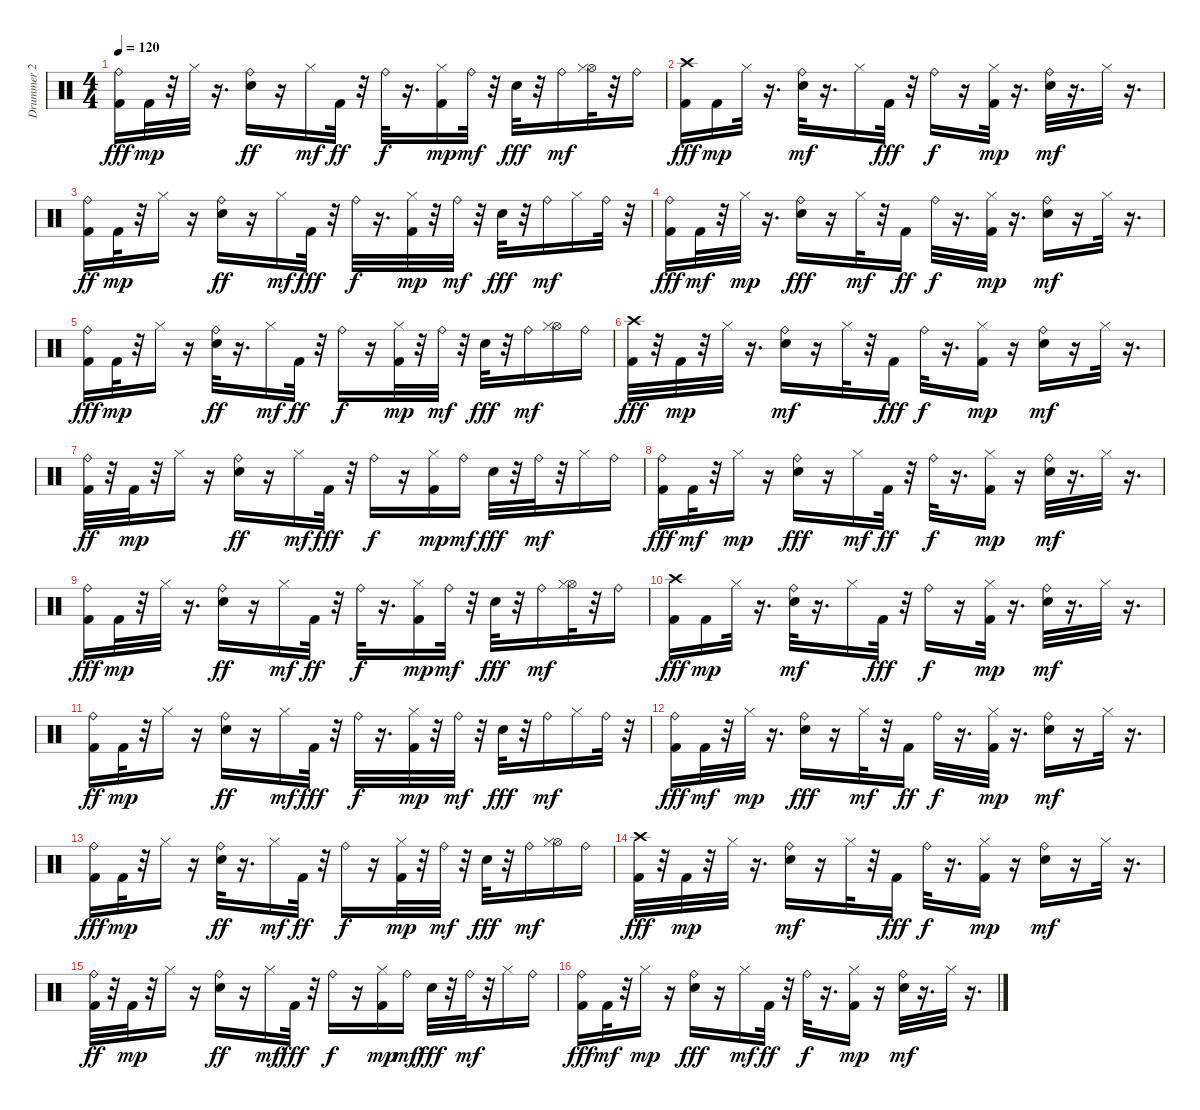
\track ("Drummer 2" "Drummer 2") {instrument percussion}
\staff {score}
\articulation defaults
\ts (4 4)
\tempo 120
\clef neutral
\ks c
("Kick (hit) 2" "Ride (bell)").16{dy fff} "Kick (hit) 2".32{dy mp} r.32 "Hi-Hat (closed)".32 r.16{d} ("Ride (bell)" "Snare (hit) 2").16{dy ff} r.16 "Hi-Hat (closed)".16{dy mf} "Kick (hit) 2".32{dy ff} r.32 "Ride (bell)".32{dy f} r.16{d} ("Kick (hit) 2" "Hi-Hat (closed)").16{dy mp} "Ride (bell)".32{dy mf} r.32 "Snare (hit) 2".32{dy fff} r.32 "Ride (bell)".16{dy mf} ("Hi-Hat (open)" "Hi-Hat (closed)").32 r.32 "Ride (bell)".16 |
("Kick (hit) 2" "Crash high (hit)").16{dy fff} "Kick (hit) 2".16{dy mp} "Hi-Hat (closed)".32 r.16{d} ("Snare (hit) 2" "Ride (bell)").32{dy mf} r.16{d} "Hi-Hat (closed)".16 "Kick (hit) 2".32{dy fff} r.32 "Ride (bell)".16{dy f} r.16 ("Kick (hit) 2" "Hi-Hat (closed)").32{dy mp} r.16{d} ("Snare (hit) 2" "Ride (bell)").32{dy mf} r.16{d} "Hi-Hat (closed)".32 r.16{d} |
("Kick (hit) 2" "Ride (bell)").16{dy ff} "Kick (hit) 2".32{dy mp} r.32 "Hi-Hat (closed)".16 r.16 ("Ride (bell)" "Snare (hit) 2").16{dy ff} r.16 "Hi-Hat (closed)".16{dy mf} "Kick (hit) 2".32{dy fff} r.32 "Ride (bell)".32{dy f} r.16{d} ("Kick (hit) 2" "Hi-Hat (closed)").32{dy mp} r.32 "Ride (bell)".32{dy mf} r.32 "Snare (hit) 2".32{dy fff} r.32 "Ride (bell)".16{dy mf} "Hi-Hat (closed)".16 "Ride (bell)".32 r.32 |
("Kick (hit) 2" "Ride (bell)").16{dy fff} "Kick (hit) 2".32{dy mf} r.32 "Hi-Hat (closed)".32{dy mp} r.16{d} ("Ride (bell)" "Snare (hit) 2").16{dy fff} r.16 "Hi-Hat (closed)".32{dy mf} r.32 "Kick (hit) 2".16{dy ff} "Ride (bell)".32{dy f} r.16{d} ("Kick (hit) 2" "Hi-Hat (closed)").32{dy mp} r.16{d} ("Snare (hit) 2" "Ride (bell)").16{dy mf} r.16 "Hi-Hat (closed)".32 r.16{d} |
("Kick (hit) 2" "Ride (bell)").16{dy fff} "Kick (hit) 2".32{dy mp} r.32 "Hi-Hat (closed)".16 r.16 ("Ride (bell)" "Snare (hit) 2").32{dy ff} r.16{d} "Hi-Hat (closed)".16{dy mf} "Kick (hit) 2".32{dy ff} r.32 "Ride (bell)".16{dy f} r.16 ("Kick (hit) 2" "Hi-Hat (closed)").32{dy mp} r.32 "Ride (bell)".32{dy mf} r.32 "Snare (hit) 2".32{dy fff} r.32 "Ride (bell)".16{dy mf} ("Hi-Hat (open)" "Hi-Hat (closed)").16 "Ride (bell)".16 |
("Kick (hit) 2" "Crash high (hit)").32{dy fff} r.32 "Kick (hit) 2".32{dy mp} r.32 "Hi-Hat (closed)".32 r.16{d} ("Snare (hit) 2" "Ride (bell)").16{dy mf} r.16 "Hi-Hat (closed)".32 r.32 "Kick (hit) 2".16{dy fff} "Ride (bell)".32{dy f} r.16{d} ("Kick (hit) 2" "Hi-Hat (closed)").16{dy mp} r.16 ("Snare (hit) 2" "Ride (bell)").16{dy mf} r.16 "Hi-Hat (closed)".32 r.16{d} |
("Kick (hit) 2" "Ride (bell)").32{dy ff} r.32 "Kick (hit) 2".32{dy mp} r.32 "Hi-Hat (closed)".16 r.16 ("Ride (bell)" "Snare (hit) 2").16{dy ff} r.16 "Hi-Hat (closed)".16{dy mf} "Kick (hit) 2".32{dy fff} r.32 "Ride (bell)".16{dy f} r.16 ("Kick (hit) 2" "Hi-Hat (closed)").16{dy mp} "Ride (bell)".16{dy mf} "Snare (hit) 2".32{dy fff} r.32 "Ride (bell)".32{dy mf} r.32 "Hi-Hat (closed)".16 "Ride (bell)".16 |
("Kick (hit) 2" "Ride (bell)").16{dy fff} "Kick (hit) 2".32{dy mf} r.32 "Hi-Hat (closed)".16{dy mp} r.16 ("Ride (bell)" "Snare (hit) 2").16{dy fff} r.16 "Hi-Hat (closed)".16{dy mf} "Kick (hit) 2".32{dy ff} r.32 "Ride (bell)".32{dy f} r.16{d} ("Kick (hit) 2" "Hi-Hat (closed)").16{dy mp} r.16 ("Snare (hit) 2" "Ride (bell)").32{dy mf} r.16{d} "Hi-Hat (closed)".32 r.16{d} |
("Kick (hit) 2" "Ride (bell)").16{dy fff} "Kick (hit) 2".32{dy mp} r.32 "Hi-Hat (closed)".32 r.16{d} ("Ride (bell)" "Snare (hit) 2").16{dy ff} r.16 "Hi-Hat (closed)".16{dy mf} "Kick (hit) 2".32{dy ff} r.32 "Ride (bell)".32{dy f} r.16{d} ("Kick (hit) 2" "Hi-Hat (closed)").16{dy mp} "Ride (bell)".32{dy mf} r.32 "Snare (hit) 2".32{dy fff} r.32 "Ride (bell)".16{dy mf} ("Hi-Hat (open)" "Hi-Hat (closed)").32 r.32 "Ride (bell)".16 |
("Kick (hit) 2" "Crash high (hit)").16{dy fff} "Kick (hit) 2".16{dy mp} "Hi-Hat (closed)".32 r.16{d} ("Snare (hit) 2" "Ride (bell)").32{dy mf} r.16{d} "Hi-Hat (closed)".16 "Kick (hit) 2".32{dy fff} r.32 "Ride (bell)".16{dy f} r.16 ("Kick (hit) 2" "Hi-Hat (closed)").32{dy mp} r.16{d} ("Snare (hit) 2" "Ride (bell)").32{dy mf} r.16{d} "Hi-Hat (closed)".32 r.16{d} |
("Kick (hit) 2" "Ride (bell)").16{dy ff} "Kick (hit) 2".32{dy mp} r.32 "Hi-Hat (closed)".16 r.16 ("Ride (bell)" "Snare (hit) 2").16{dy ff} r.16 "Hi-Hat (closed)".16{dy mf} "Kick (hit) 2".32{dy fff} r.32 "Ride (bell)".32{dy f} r.16{d} ("Kick (hit) 2" "Hi-Hat (closed)").32{dy mp} r.32 "Ride (bell)".32{dy mf} r.32 "Snare (hit) 2".32{dy fff} r.32 "Ride (bell)".16{dy mf} "Hi-Hat (closed)".16 "Ride (bell)".32 r.32 |
("Kick (hit) 2" "Ride (bell)").16{dy fff} "Kick (hit) 2".32{dy mf} r.32 "Hi-Hat (closed)".32{dy mp} r.16{d} ("Ride (bell)" "Snare (hit) 2").16{dy fff} r.16 "Hi-Hat (closed)".32{dy mf} r.32 "Kick (hit) 2".16{dy ff} "Ride (bell)".32{dy f} r.16{d} ("Kick (hit) 2" "Hi-Hat (closed)").32{dy mp} r.16{d} ("Snare (hit) 2" "Ride (bell)").16{dy mf} r.16 "Hi-Hat (closed)".32 r.16{d} |
("Kick (hit) 2" "Ride (bell)").16{dy fff} "Kick (hit) 2".32{dy mp} r.32 "Hi-Hat (closed)".16 r.16 ("Ride (bell)" "Snare (hit) 2").32{dy ff} r.16{d} "Hi-Hat (closed)".16{dy mf} "Kick (hit) 2".32{dy ff} r.32 "Ride (bell)".16{dy f} r.16 ("Kick (hit) 2" "Hi-Hat (closed)").32{dy mp} r.32 "Ride (bell)".32{dy mf} r.32 "Snare (hit) 2".32{dy fff} r.32 "Ride (bell)".16{dy mf} ("Hi-Hat (open)" "Hi-Hat (closed)").16 "Ride (bell)".16 |
("Kick (hit) 2" "Crash high (hit)").32{dy fff} r.32 "Kick (hit) 2".32{dy mp} r.32 "Hi-Hat (closed)".32 r.16{d} ("Snare (hit) 2" "Ride (bell)").16{dy mf} r.16 "Hi-Hat (closed)".32 r.32 "Kick (hit) 2".16{dy fff} "Ride (bell)".32{dy f} r.16{d} ("Kick (hit) 2" "Hi-Hat (closed)").16{dy mp} r.16 ("Snare (hit) 2" "Ride (bell)").16{dy mf} r.16 "Hi-Hat (closed)".32 r.16{d} |
("Kick (hit) 2" "Ride (bell)").32{dy ff} r.32 "Kick (hit) 2".32{dy mp} r.32 "Hi-Hat (closed)".16 r.16 ("Ride (bell)" "Snare (hit) 2").16{dy ff} r.16 "Hi-Hat (closed)".16{dy mf} "Kick (hit) 2".32{dy fff} r.32 "Ride (bell)".16{dy f} r.16 ("Kick (hit) 2" "Hi-Hat (closed)").16{dy mp} "Ride (bell)".16{dy mf} "Snare (hit) 2".32{dy fff} r.32 "Ride (bell)".32{dy mf} r.32 "Hi-Hat (closed)".16 "Ride (bell)".16 |
("Kick (hit) 2" "Ride (bell)").16{dy fff} "Kick (hit) 2".32{dy mf} r.32 "Hi-Hat (closed)".16{dy mp} r.16 ("Ride (bell)" "Snare (hit) 2").16{dy fff} r.16 "Hi-Hat (closed)".16{dy mf} "Kick (hit) 2".32{dy ff} r.32 "Ride (bell)".32{dy f} r.16{d} ("Kick (hit) 2" "Hi-Hat (closed)").16{dy mp} r.16 ("Snare (hit) 2" "Ride (bell)").32{dy mf} r.16{d} "Hi-Hat (closed)".32 r.16{d}
